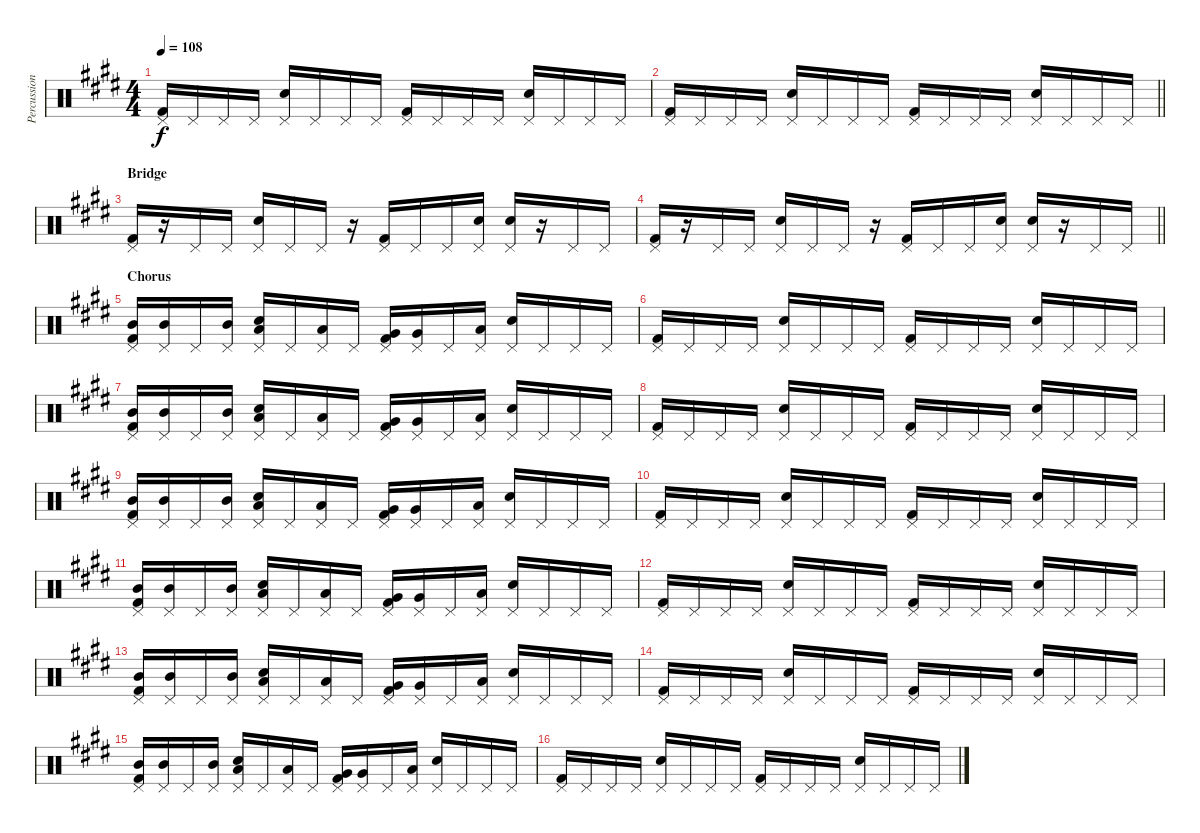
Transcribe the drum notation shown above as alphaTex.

\track ("Percussion" "Percussion") {instrument percussion}
\staff {score}
\articulation defaults
\ts (4 4)
\tempo 108
\clef neutral
\ks e
("Pedal Hi-Hat (hit)" "Kick (hit) 2").16{dy f} "Pedal Hi-Hat (hit)".16 "Pedal Hi-Hat (hit)".16 "Pedal Hi-Hat (hit)".16 ("Pedal Hi-Hat (hit)" "Snare (hit) 2").16 "Pedal Hi-Hat (hit)".16 "Pedal Hi-Hat (hit)".16 "Pedal Hi-Hat (hit)".16 ("Pedal Hi-Hat (hit)" "Kick (hit) 2").16 "Pedal Hi-Hat (hit)".16 "Pedal Hi-Hat (hit)".16 "Pedal Hi-Hat (hit)".16 ("Pedal Hi-Hat (hit)" "Snare (hit) 2").16 "Pedal Hi-Hat (hit)".16 "Pedal Hi-Hat (hit)".16 "Pedal Hi-Hat (hit)".16 |
\barLineRight lightlight
("Pedal Hi-Hat (hit)" "Kick (hit) 2").16 "Pedal Hi-Hat (hit)".16 "Pedal Hi-Hat (hit)".16 "Pedal Hi-Hat (hit)".16 ("Pedal Hi-Hat (hit)" "Snare (hit) 2").16 "Pedal Hi-Hat (hit)".16 "Pedal Hi-Hat (hit)".16 "Pedal Hi-Hat (hit)".16 ("Pedal Hi-Hat (hit)" "Kick (hit) 2").16 "Pedal Hi-Hat (hit)".16 "Pedal Hi-Hat (hit)".16 "Pedal Hi-Hat (hit)".16 ("Pedal Hi-Hat (hit)" "Snare (hit) 2").16 "Pedal Hi-Hat (hit)".16 "Pedal Hi-Hat (hit)".16 "Pedal Hi-Hat (hit)".16 |
\section ("" "Bridge")
("Pedal Hi-Hat (hit)" "Kick (hit) 2").16 r.16 "Pedal Hi-Hat (hit)".16 "Pedal Hi-Hat (hit)".16 ("Pedal Hi-Hat (hit)" "Snare (hit) 2").16 "Pedal Hi-Hat (hit)".16 "Pedal Hi-Hat (hit)".16 r.16 ("Pedal Hi-Hat (hit)" "Kick (hit) 2").16 "Pedal Hi-Hat (hit)".16 "Pedal Hi-Hat (hit)".16 ("Pedal Hi-Hat (hit)" "Snare (hit) 2").16 ("Pedal Hi-Hat (hit)" "Snare (hit) 2").16 r.16 "Pedal Hi-Hat (hit)".16 "Pedal Hi-Hat (hit)".16 |
\barLineRight lightlight
("Pedal Hi-Hat (hit)" "Kick (hit) 2").16 r.16 "Pedal Hi-Hat (hit)".16 "Pedal Hi-Hat (hit)".16 ("Pedal Hi-Hat (hit)" "Snare (hit) 2").16 "Pedal Hi-Hat (hit)".16 "Pedal Hi-Hat (hit)".16 r.16 ("Pedal Hi-Hat (hit)" "Kick (hit) 2").16 "Pedal Hi-Hat (hit)".16 "Pedal Hi-Hat (hit)".16 ("Pedal Hi-Hat (hit)" "Snare (hit) 2").16 ("Pedal Hi-Hat (hit)" "Snare (hit) 2").16 r.16 "Pedal Hi-Hat (hit)".16 "Pedal Hi-Hat (hit)".16 |
\section ("" "Chorus")
("Pedal Hi-Hat (hit)" "Mid Tom (hit)" "Kick (hit) 2").16 ("Pedal Hi-Hat (hit)" "Mid Tom (hit)").16 "Pedal Hi-Hat (hit)".16 ("Pedal Hi-Hat (hit)" "Mid Tom (hit)").16 ("Pedal Hi-Hat (hit)" "Low Tom (hit)" "Snare (hit) 2").16 "Pedal Hi-Hat (hit)".16 ("Pedal Hi-Hat (hit)" "Low Tom (hit)").16 "Pedal Hi-Hat (hit)".16 ("Pedal Hi-Hat (hit)" "Very Low Tom (hit)" "Kick (hit) 2").16 ("Pedal Hi-Hat (hit)" "Very Low Tom (hit)").16 "Pedal Hi-Hat (hit)".16 ("Pedal Hi-Hat (hit)" "Low Floor Tom (hit)").16 ("Pedal Hi-Hat (hit)" "Snare (hit) 2").16 "Pedal Hi-Hat (hit)".16 "Pedal Hi-Hat (hit)".16 "Pedal Hi-Hat (hit)".16 |
("Pedal Hi-Hat (hit)" "Kick (hit) 2").16 "Pedal Hi-Hat (hit)".16 "Pedal Hi-Hat (hit)".16 "Pedal Hi-Hat (hit)".16 ("Pedal Hi-Hat (hit)" "Snare (hit) 2").16 "Pedal Hi-Hat (hit)".16 "Pedal Hi-Hat (hit)".16 "Pedal Hi-Hat (hit)".16 ("Pedal Hi-Hat (hit)" "Kick (hit) 2").16 "Pedal Hi-Hat (hit)".16 "Pedal Hi-Hat (hit)".16 "Pedal Hi-Hat (hit)".16 ("Pedal Hi-Hat (hit)" "Snare (hit) 2").16 "Pedal Hi-Hat (hit)".16 "Pedal Hi-Hat (hit)".16 "Pedal Hi-Hat (hit)".16 |
("Pedal Hi-Hat (hit)" "Mid Tom (hit)" "Kick (hit) 2").16 ("Pedal Hi-Hat (hit)" "Mid Tom (hit)").16 "Pedal Hi-Hat (hit)".16 ("Pedal Hi-Hat (hit)" "Mid Tom (hit)").16 ("Pedal Hi-Hat (hit)" "Low Tom (hit)" "Snare (hit) 2").16 "Pedal Hi-Hat (hit)".16 ("Pedal Hi-Hat (hit)" "Low Tom (hit)").16 "Pedal Hi-Hat (hit)".16 ("Pedal Hi-Hat (hit)" "Very Low Tom (hit)" "Kick (hit) 2").16 ("Pedal Hi-Hat (hit)" "Very Low Tom (hit)").16 "Pedal Hi-Hat (hit)".16 ("Pedal Hi-Hat (hit)" "Low Floor Tom (hit)").16 ("Pedal Hi-Hat (hit)" "Snare (hit) 2").16 "Pedal Hi-Hat (hit)".16 "Pedal Hi-Hat (hit)".16 "Pedal Hi-Hat (hit)".16 |
("Pedal Hi-Hat (hit)" "Kick (hit) 2").16 "Pedal Hi-Hat (hit)".16 "Pedal Hi-Hat (hit)".16 "Pedal Hi-Hat (hit)".16 ("Pedal Hi-Hat (hit)" "Snare (hit) 2").16 "Pedal Hi-Hat (hit)".16 "Pedal Hi-Hat (hit)".16 "Pedal Hi-Hat (hit)".16 ("Pedal Hi-Hat (hit)" "Kick (hit) 2").16 "Pedal Hi-Hat (hit)".16 "Pedal Hi-Hat (hit)".16 "Pedal Hi-Hat (hit)".16 ("Pedal Hi-Hat (hit)" "Snare (hit) 2").16 "Pedal Hi-Hat (hit)".16 "Pedal Hi-Hat (hit)".16 "Pedal Hi-Hat (hit)".16 |
("Pedal Hi-Hat (hit)" "Mid Tom (hit)" "Kick (hit) 2").16 ("Pedal Hi-Hat (hit)" "Mid Tom (hit)").16 "Pedal Hi-Hat (hit)".16 ("Pedal Hi-Hat (hit)" "Mid Tom (hit)").16 ("Pedal Hi-Hat (hit)" "Low Tom (hit)" "Snare (hit) 2").16 "Pedal Hi-Hat (hit)".16 ("Pedal Hi-Hat (hit)" "Low Tom (hit)").16 "Pedal Hi-Hat (hit)".16 ("Pedal Hi-Hat (hit)" "Very Low Tom (hit)" "Kick (hit) 2").16 ("Pedal Hi-Hat (hit)" "Very Low Tom (hit)").16 "Pedal Hi-Hat (hit)".16 ("Pedal Hi-Hat (hit)" "Low Floor Tom (hit)").16 ("Pedal Hi-Hat (hit)" "Snare (hit) 2").16 "Pedal Hi-Hat (hit)".16 "Pedal Hi-Hat (hit)".16 "Pedal Hi-Hat (hit)".16 |
("Pedal Hi-Hat (hit)" "Kick (hit) 2").16 "Pedal Hi-Hat (hit)".16 "Pedal Hi-Hat (hit)".16 "Pedal Hi-Hat (hit)".16 ("Pedal Hi-Hat (hit)" "Snare (hit) 2").16 "Pedal Hi-Hat (hit)".16 "Pedal Hi-Hat (hit)".16 "Pedal Hi-Hat (hit)".16 ("Pedal Hi-Hat (hit)" "Kick (hit) 2").16 "Pedal Hi-Hat (hit)".16 "Pedal Hi-Hat (hit)".16 "Pedal Hi-Hat (hit)".16 ("Pedal Hi-Hat (hit)" "Snare (hit) 2").16 "Pedal Hi-Hat (hit)".16 "Pedal Hi-Hat (hit)".16 "Pedal Hi-Hat (hit)".16 |
("Pedal Hi-Hat (hit)" "Mid Tom (hit)" "Kick (hit) 2").16 ("Pedal Hi-Hat (hit)" "Mid Tom (hit)").16 "Pedal Hi-Hat (hit)".16 ("Pedal Hi-Hat (hit)" "Mid Tom (hit)").16 ("Pedal Hi-Hat (hit)" "Low Tom (hit)" "Snare (hit) 2").16 "Pedal Hi-Hat (hit)".16 ("Pedal Hi-Hat (hit)" "Low Tom (hit)").16 "Pedal Hi-Hat (hit)".16 ("Pedal Hi-Hat (hit)" "Very Low Tom (hit)" "Kick (hit) 2").16 ("Pedal Hi-Hat (hit)" "Very Low Tom (hit)").16 "Pedal Hi-Hat (hit)".16 ("Pedal Hi-Hat (hit)" "Low Floor Tom (hit)").16 ("Pedal Hi-Hat (hit)" "Snare (hit) 2").16 "Pedal Hi-Hat (hit)".16 "Pedal Hi-Hat (hit)".16 "Pedal Hi-Hat (hit)".16 |
("Pedal Hi-Hat (hit)" "Kick (hit) 2").16 "Pedal Hi-Hat (hit)".16 "Pedal Hi-Hat (hit)".16 "Pedal Hi-Hat (hit)".16 ("Pedal Hi-Hat (hit)" "Snare (hit) 2").16 "Pedal Hi-Hat (hit)".16 "Pedal Hi-Hat (hit)".16 "Pedal Hi-Hat (hit)".16 ("Pedal Hi-Hat (hit)" "Kick (hit) 2").16 "Pedal Hi-Hat (hit)".16 "Pedal Hi-Hat (hit)".16 "Pedal Hi-Hat (hit)".16 ("Pedal Hi-Hat (hit)" "Snare (hit) 2").16 "Pedal Hi-Hat (hit)".16 "Pedal Hi-Hat (hit)".16 "Pedal Hi-Hat (hit)".16 |
("Pedal Hi-Hat (hit)" "Mid Tom (hit)" "Kick (hit) 2").16 ("Pedal Hi-Hat (hit)" "Mid Tom (hit)").16 "Pedal Hi-Hat (hit)".16 ("Pedal Hi-Hat (hit)" "Mid Tom (hit)").16 ("Pedal Hi-Hat (hit)" "Low Tom (hit)" "Snare (hit) 2").16 "Pedal Hi-Hat (hit)".16 ("Pedal Hi-Hat (hit)" "Low Tom (hit)").16 "Pedal Hi-Hat (hit)".16 ("Pedal Hi-Hat (hit)" "Very Low Tom (hit)" "Kick (hit) 2").16 ("Pedal Hi-Hat (hit)" "Very Low Tom (hit)").16 "Pedal Hi-Hat (hit)".16 ("Pedal Hi-Hat (hit)" "Low Floor Tom (hit)").16 ("Pedal Hi-Hat (hit)" "Snare (hit) 2").16 "Pedal Hi-Hat (hit)".16 "Pedal Hi-Hat (hit)".16 "Pedal Hi-Hat (hit)".16 |
("Pedal Hi-Hat (hit)" "Kick (hit) 2").16 "Pedal Hi-Hat (hit)".16 "Pedal Hi-Hat (hit)".16 "Pedal Hi-Hat (hit)".16 ("Pedal Hi-Hat (hit)" "Snare (hit) 2").16 "Pedal Hi-Hat (hit)".16 "Pedal Hi-Hat (hit)".16 "Pedal Hi-Hat (hit)".16 ("Pedal Hi-Hat (hit)" "Kick (hit) 2").16 "Pedal Hi-Hat (hit)".16 "Pedal Hi-Hat (hit)".16 "Pedal Hi-Hat (hit)".16 ("Pedal Hi-Hat (hit)" "Snare (hit) 2").16 "Pedal Hi-Hat (hit)".16 "Pedal Hi-Hat (hit)".16 "Pedal Hi-Hat (hit)".16 |
("Pedal Hi-Hat (hit)" "Mid Tom (hit)" "Kick (hit) 2").16 ("Pedal Hi-Hat (hit)" "Mid Tom (hit)").16 "Pedal Hi-Hat (hit)".16 ("Pedal Hi-Hat (hit)" "Mid Tom (hit)").16 ("Pedal Hi-Hat (hit)" "Low Tom (hit)" "Snare (hit) 2").16 "Pedal Hi-Hat (hit)".16 ("Pedal Hi-Hat (hit)" "Low Tom (hit)").16 "Pedal Hi-Hat (hit)".16 ("Pedal Hi-Hat (hit)" "Very Low Tom (hit)" "Kick (hit) 2").16 ("Pedal Hi-Hat (hit)" "Very Low Tom (hit)").16 "Pedal Hi-Hat (hit)".16 ("Pedal Hi-Hat (hit)" "Low Floor Tom (hit)").16 ("Pedal Hi-Hat (hit)" "Snare (hit) 2").16 "Pedal Hi-Hat (hit)".16 "Pedal Hi-Hat (hit)".16 "Pedal Hi-Hat (hit)".16 |
("Pedal Hi-Hat (hit)" "Kick (hit) 2").16 "Pedal Hi-Hat (hit)".16 "Pedal Hi-Hat (hit)".16 "Pedal Hi-Hat (hit)".16 ("Pedal Hi-Hat (hit)" "Snare (hit) 2").16 "Pedal Hi-Hat (hit)".16 "Pedal Hi-Hat (hit)".16 "Pedal Hi-Hat (hit)".16 ("Pedal Hi-Hat (hit)" "Kick (hit) 2").16 "Pedal Hi-Hat (hit)".16 "Pedal Hi-Hat (hit)".16 "Pedal Hi-Hat (hit)".16 ("Pedal Hi-Hat (hit)" "Snare (hit) 2").16 "Pedal Hi-Hat (hit)".16 "Pedal Hi-Hat (hit)".16 "Pedal Hi-Hat (hit)".16
